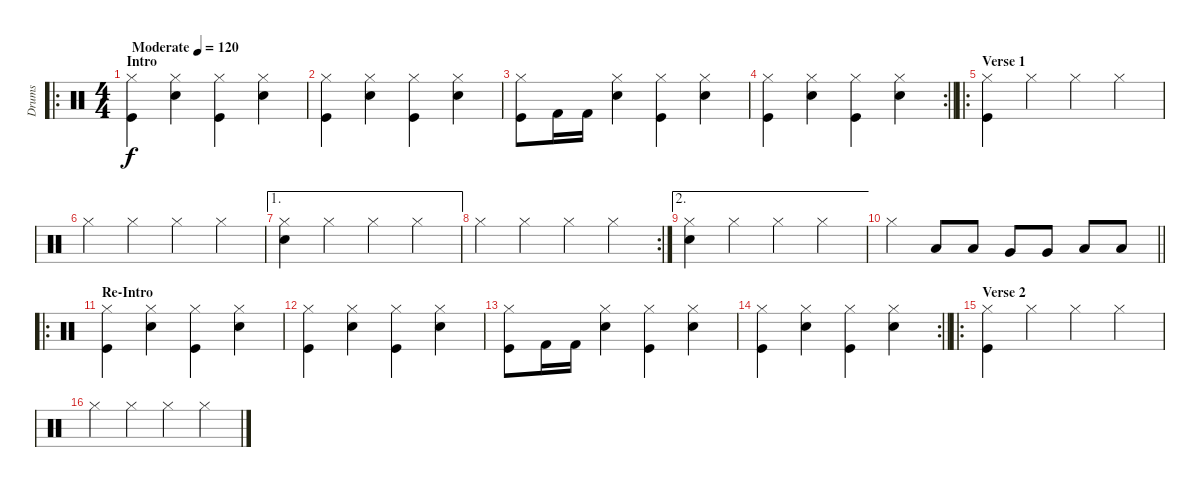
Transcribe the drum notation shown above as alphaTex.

\track ("Drums" "Drums") {instrument percussion}
\staff {score}
\articulation defaults
\ro
\ts (4 4)
\section ("" "Intro")
\tempo (120 "Moderate")
\clef neutral
\ks c
("Hi-Hat (closed)" "Kick (hit)").4{dy f} ("Hi-Hat (closed)" "Snare (hit) 2").4 ("Hi-Hat (closed)" "Kick (hit)").4 ("Hi-Hat (closed)" "Snare (hit) 2").4 |
("Hi-Hat (closed)" "Kick (hit)").4 ("Hi-Hat (closed)" "Snare (hit) 2").4 ("Hi-Hat (closed)" "Kick (hit)").4 ("Hi-Hat (closed)" "Snare (hit) 2").4 |
("Hi-Hat (closed)" "Kick (hit)").8 "Kick (hit) 2".16 "Kick (hit) 2".16 ("Hi-Hat (closed)" "Snare (hit) 2").4 ("Hi-Hat (closed)" "Kick (hit)").4 ("Hi-Hat (closed)" "Snare (hit) 2").4 |
\rc 2
\barLineRight lightlight
("Hi-Hat (closed)" "Kick (hit)").4 ("Hi-Hat (closed)" "Snare (hit) 2").4 ("Hi-Hat (closed)" "Kick (hit)").4 ("Hi-Hat (closed)" "Snare (hit) 2").4 |
\ro
\section ("" "Verse 1")
("Hi-Hat (closed)" "Kick (hit)").4 "Hi-Hat (closed)".4 "Hi-Hat (closed)".4 "Hi-Hat (closed)".4 |
"Hi-Hat (closed)".4 "Hi-Hat (closed)".4 "Hi-Hat (closed)".4 "Hi-Hat (closed)".4 |
\ae 1
("Hi-Hat (closed)" "Snare (hit) 2").4 "Hi-Hat (closed)".4 "Hi-Hat (closed)".4 "Hi-Hat (closed)".4 |
\rc 2 "Hi-Hat (closed)".4 "Hi-Hat (closed)".4 "Hi-Hat (closed)".4 "Hi-Hat (closed)".4
|
\ae 2
("Hi-Hat (closed)" "Snare (hit) 2").4 "Hi-Hat (closed)".4 "Hi-Hat (closed)".4 "Hi-Hat (closed)".4 |
\barLineRight lightlight "Hi-Hat (closed)".4 "Low Tom (hit)".8 "Low Tom (hit)".8 "Very Low Tom (hit)".8 "Very Low Tom (hit)".8 "Low Floor Tom (hit)".8 "Low Floor Tom (hit)".8
|
\ro
\section ("" "Re-Intro")
("Hi-Hat (closed)" "Kick (hit)").4 ("Hi-Hat (closed)" "Snare (hit) 2").4 ("Hi-Hat (closed)" "Kick (hit)").4 ("Hi-Hat (closed)" "Snare (hit) 2").4 |
("Hi-Hat (closed)" "Kick (hit)").4 ("Hi-Hat (closed)" "Snare (hit) 2").4 ("Hi-Hat (closed)" "Kick (hit)").4 ("Hi-Hat (closed)" "Snare (hit) 2").4 |
("Hi-Hat (closed)" "Kick (hit)").8 "Kick (hit) 2".16 "Kick (hit) 2".16 ("Hi-Hat (closed)" "Snare (hit) 2").4 ("Hi-Hat (closed)" "Kick (hit)").4 ("Hi-Hat (closed)" "Snare (hit) 2").4 |
\rc 2
\barLineRight lightlight
("Hi-Hat (closed)" "Kick (hit)").4 ("Hi-Hat (closed)" "Snare (hit) 2").4 ("Hi-Hat (closed)" "Kick (hit)").4 ("Hi-Hat (closed)" "Snare (hit) 2").4 |
\ro
\section ("" "Verse 2")
("Hi-Hat (closed)" "Kick (hit)").4 "Hi-Hat (closed)".4 "Hi-Hat (closed)".4 "Hi-Hat (closed)".4 |
"Hi-Hat (closed)".4 "Hi-Hat (closed)".4 "Hi-Hat (closed)".4 "Hi-Hat (closed)".4
